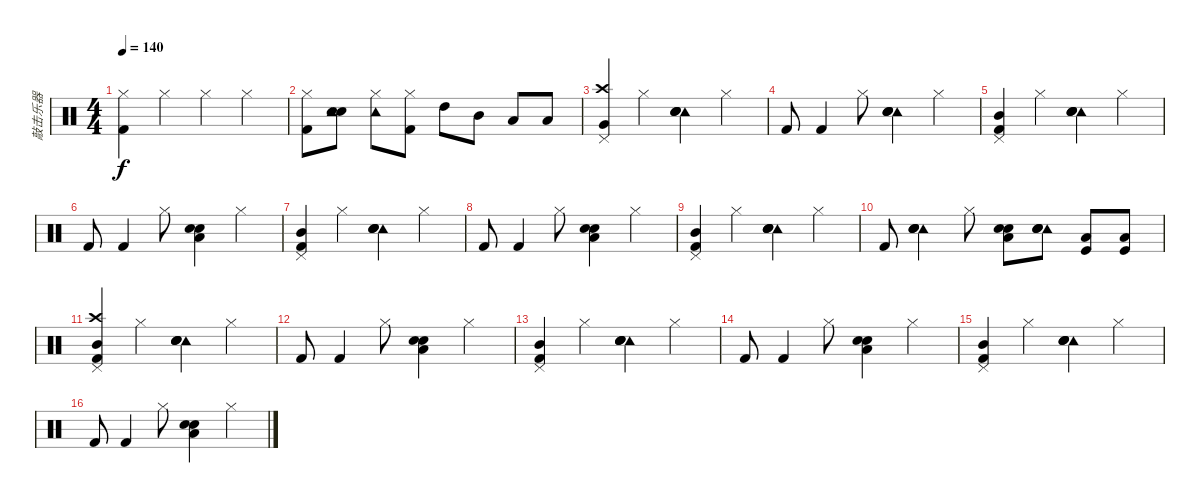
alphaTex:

\track ("敲击乐器" "敲击乐器") {instrument percussion bank 3}
\staff {score}
\articulation defaults
\ts (4 4)
\tempo 140
\clef neutral
\ks c
("Kick (hit) 2" "Hi-Hat (closed)").4{dy f} "Hi-Hat (closed)".4 "Hi-Hat (closed)".4 "Hi-Hat (closed)".4 |
("Kick (hit) 2" "Hi-Hat (closed)").8 ("Snare (hit) 2" "Electric Snare (hit)" "Tambourine (hit)").8 ("Hi-Hat (closed)" "Tambourine (hit)").8 ("Kick (hit) 2" "Hi-Hat (closed)").8 "High Tom (hit)".8 "Mid Tom (hit)".8 "Low Tom (hit)".8 "Low Tom (hit)".8 |
("Very Low Tom (hit)" "Crash high (hit)" "Pedal Hi-Hat (hit)").4 "Hi-Hat (closed)".4 ("Tambourine (hit)" "Electric Snare (hit)" "Hand Clap (hit)" "Snare (hit) 2").4 "Hi-Hat (closed)".4 |
"Kick (hit) 2".8 "Kick (hit) 2".4 "Hi-Hat (closed)".8 ("Tambourine (hit)" "Electric Snare (hit)" "Snare (hit) 2" "Hand Clap (hit)").4 "Hi-Hat (closed)".4 |
("Mid Tom (hit)" "Kick (hit) 2" "Pedal Hi-Hat (hit)").4 "Hi-Hat (closed)".4 ("Tambourine (hit)" "Electric Snare (hit)" "Hand Clap (hit)" "Snare (hit) 2").4 "Hi-Hat (closed)".4 |
"Kick (hit) 2".8 "Kick (hit) 2".4 "Hi-Hat (closed)".8 ("Low Tom (hit)" "Snare (hit) 2" "Hand Clap (hit)").4 "Hi-Hat (closed)".4 |
("Mid Tom (hit)" "Kick (hit) 2" "Pedal Hi-Hat (hit)").4 "Hi-Hat (closed)".4 ("Tambourine (hit)" "Electric Snare (hit)" "Hand Clap (hit)" "Snare (hit) 2").4 "Hi-Hat (closed)".4 |
"Kick (hit) 2".8 "Kick (hit) 2".4 "Hi-Hat (closed)".8 ("Low Tom (hit)" "Snare (hit) 2" "Hand Clap (hit)").4 "Hi-Hat (closed)".4 |
("Mid Tom (hit)" "Kick (hit) 2" "Pedal Hi-Hat (hit)").4 "Hi-Hat (closed)".4 ("Tambourine (hit)" "Electric Snare (hit)" "Hand Clap (hit)" "Snare (hit) 2").4 "Hi-Hat (closed)".4 |
"Kick (hit) 2".8 ("Tambourine (hit)" "Electric Snare (hit)" "Hand Clap (hit)" "Snare (hit) 2").4 "Hi-Hat (closed)".8 ("Low Tom (hit)" "Snare (hit) 2" "Hand Clap (hit)").8 ("Tambourine (hit)" "Electric Snare (hit)" "Hand Clap (hit)" "Snare (hit) 2").8 ("Low Floor Tom (hit)" "Kick (hit)").8 ("Low Floor Tom (hit)" "Kick (hit)").8 |
("Crash high (hit)" "Mid Tom (hit)" "Kick (hit) 2" "Pedal Hi-Hat (hit)").4 "Hi-Hat (closed)".4 ("Tambourine (hit)" "Electric Snare (hit)" "Hand Clap (hit)" "Snare (hit) 2").4 "Hi-Hat (closed)".4 |
"Kick (hit) 2".8 "Kick (hit) 2".4 "Hi-Hat (closed)".8 ("Low Tom (hit)" "Snare (hit) 2" "Hand Clap (hit)").4 "Hi-Hat (closed)".4 |
("Mid Tom (hit)" "Kick (hit) 2" "Pedal Hi-Hat (hit)").4 "Hi-Hat (closed)".4 ("Tambourine (hit)" "Electric Snare (hit)" "Hand Clap (hit)" "Snare (hit) 2").4 "Hi-Hat (closed)".4 |
"Kick (hit) 2".8 "Kick (hit) 2".4 "Hi-Hat (closed)".8 ("Low Tom (hit)" "Snare (hit) 2" "Hand Clap (hit)").4 "Hi-Hat (closed)".4 |
("Mid Tom (hit)" "Kick (hit) 2" "Pedal Hi-Hat (hit)").4 "Hi-Hat (closed)".4 ("Tambourine (hit)" "Electric Snare (hit)" "Hand Clap (hit)" "Snare (hit) 2").4 "Hi-Hat (closed)".4 |
"Kick (hit) 2".8 "Kick (hit) 2".4 "Hi-Hat (closed)".8 ("Low Tom (hit)" "Snare (hit) 2" "Hand Clap (hit)").4 "Hi-Hat (closed)".4
